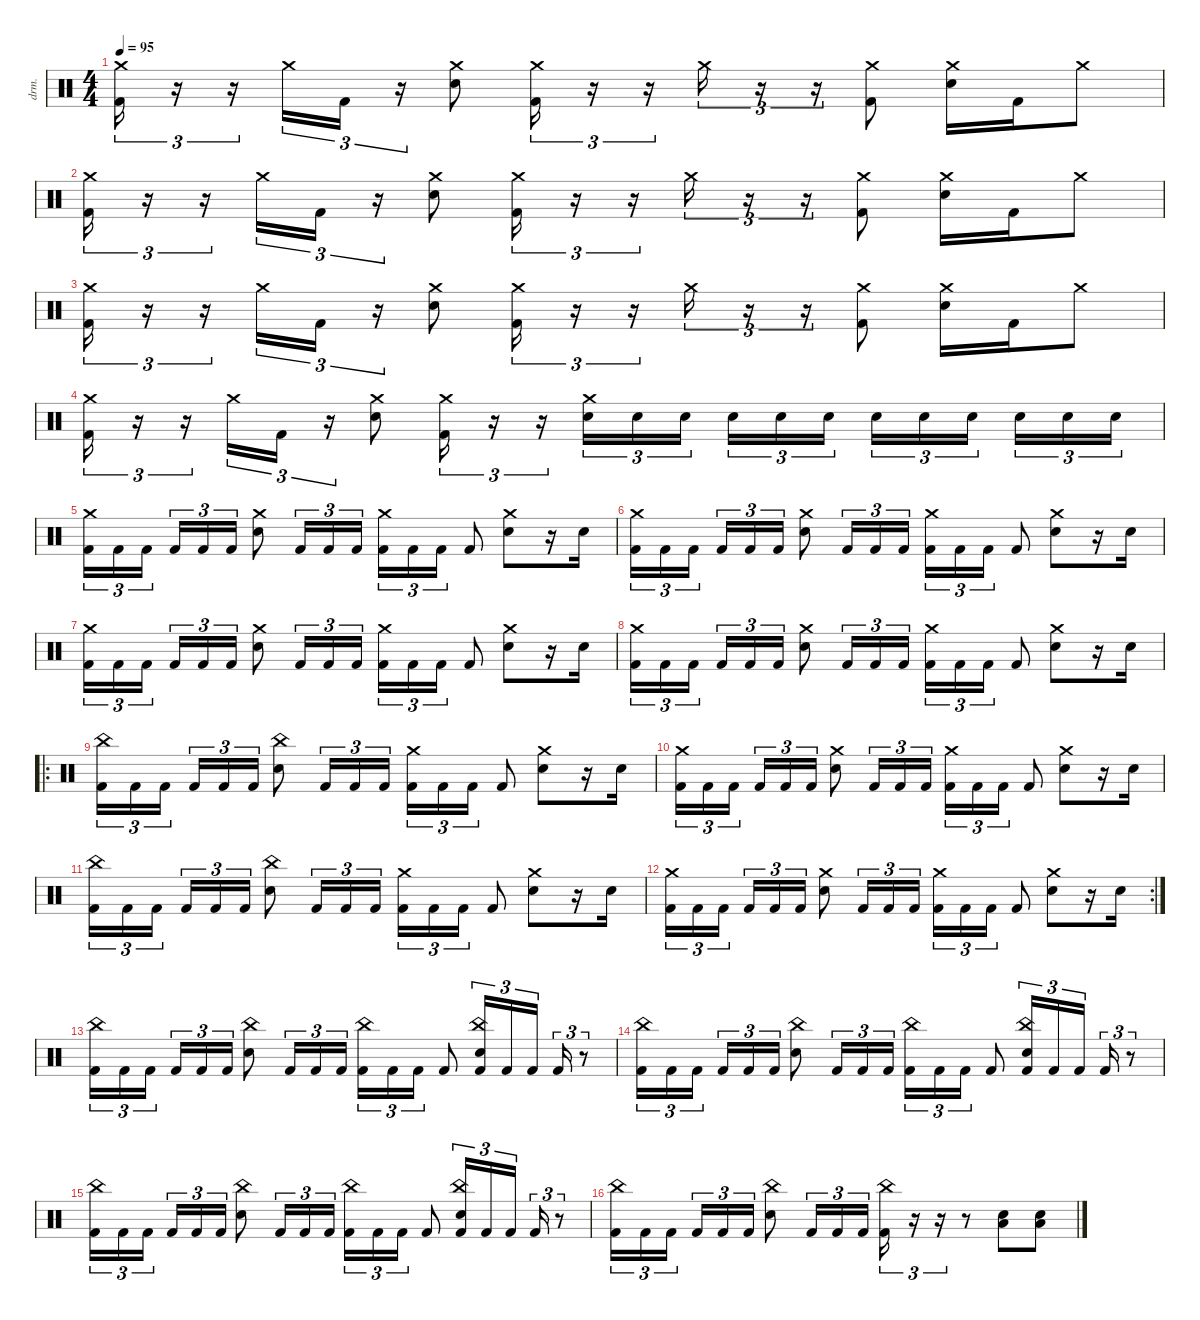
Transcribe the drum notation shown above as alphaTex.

\defaultSystemsLayout 4
\hideDynamics
\bracketExtendMode nobrackets
\otherSystemsTrackNameOrientation horizontal
\track ("FATTY!" "drm.") {instrument percussion}
\staff {score}
\articulation defaults
\ts (4 4)
\beaming (8 2 2 2 2)
\tempo 95
\clef neutral
\ks c
("Crash medium (hit)" "Kick (hit) 2").16{tu (3 2) dy f beam Down} r.16{tu (3 2) beam Down} r.16{tu (3 2) beam Down} "Crash medium (hit)".16{tu (3 2) beam Down} "Kick (hit) 2".16{tu (3 2) beam Down} r.16{tu (3 2) beam Down} ("Crash medium (hit)" "Snare (hit) 2").8{beam Down} ("Crash medium (hit)" "Kick (hit) 2").16{tu (3 2) beam Down} r.16{tu (3 2) beam Down} r.16{tu (3 2) beam Down} "Crash medium (hit)".16{tu (3 2) beam Down} r.16{tu (3 2) beam Down} r.16{tu (3 2) beam Down} ("Crash medium (hit)" "Kick (hit) 2").8{beam Down} ("Crash medium (hit)" "Snare (hit) 2").16{beam Down} "Kick (hit) 2".16{beam Down} "Crash medium (hit)".8{beam Down} |
("Crash medium (hit)" "Kick (hit) 2").16{tu (3 2) beam Down} r.16{tu (3 2) beam Down} r.16{tu (3 2) beam Down} "Crash medium (hit)".16{tu (3 2) beam Down} "Kick (hit) 2".16{tu (3 2) beam Down} r.16{tu (3 2) beam Down} ("Crash medium (hit)" "Snare (hit) 2").8{beam Down} ("Crash medium (hit)" "Kick (hit) 2").16{tu (3 2) beam Down} r.16{tu (3 2) beam Down} r.16{tu (3 2) beam Down} "Crash medium (hit)".16{tu (3 2) beam Down} r.16{tu (3 2) beam Down} r.16{tu (3 2) beam Down} ("Crash medium (hit)" "Kick (hit) 2").8{beam Down} ("Crash medium (hit)" "Snare (hit) 2").16{beam Down} "Kick (hit) 2".16{beam Down} "Crash medium (hit)".8{beam Down} |
("Crash medium (hit)" "Kick (hit) 2").16{tu (3 2) beam Down} r.16{tu (3 2) beam Down} r.16{tu (3 2) beam Down} "Crash medium (hit)".16{tu (3 2) beam Down} "Kick (hit) 2".16{tu (3 2) beam Down} r.16{tu (3 2) beam Down} ("Crash medium (hit)" "Snare (hit) 2").8{beam Down} ("Crash medium (hit)" "Kick (hit) 2").16{tu (3 2) beam Down} r.16{tu (3 2) beam Down} r.16{tu (3 2) beam Down} "Crash medium (hit)".16{tu (3 2) beam Down} r.16{tu (3 2) beam Down} r.16{tu (3 2) beam Down} ("Crash medium (hit)" "Kick (hit) 2").8{beam Down} ("Crash medium (hit)" "Snare (hit) 2").16{beam Down} "Kick (hit) 2".16{beam Down} "Crash medium (hit)".8{beam Down} |
("Crash medium (hit)" "Kick (hit) 2").16{tu (3 2) beam Down} r.16{tu (3 2) beam Down} r.16{tu (3 2) beam Down} "Crash medium (hit)".16{tu (3 2) beam Down} "Kick (hit) 2".16{tu (3 2) beam Down} r.16{tu (3 2) beam Down} ("Crash medium (hit)" "Snare (hit) 2").8{beam Down} ("Crash medium (hit)" "Kick (hit) 2").16{tu (3 2) beam Down} r.16{tu (3 2) beam Down} r.16{tu (3 2) beam Down} ("Crash medium (hit)" "Snare (hit) 2").16{tu (3 2) beam Down} "Snare (hit) 2".16{tu (3 2) beam Down} "Snare (hit) 2".16{tu (3 2) beam Down} "Snare (hit) 2".16{tu (3 2) beam Down} "Snare (hit) 2".16{tu (3 2) beam Down} "Snare (hit) 2".16{tu (3 2) beam Down} "Snare (hit) 2".16{tu (3 2) beam Down} "Snare (hit) 2".16{tu (3 2) beam Down} "Snare (hit) 2".16{tu (3 2) beam Down} "Snare (hit) 2".16{tu (3 2) beam Down} "Snare (hit) 2".16{tu (3 2) beam Down} "Snare (hit) 2".16{tu (3 2) beam Down} |
("Crash medium (hit)" "Kick (hit) 2").16{tu (3 2) beam Down} "Kick (hit) 2".16{tu (3 2) beam Down} "Kick (hit) 2".16{tu (3 2) beam Down} "Kick (hit) 2".16{tu (3 2) beam Up} "Kick (hit) 2".16{tu (3 2) beam Up} "Kick (hit) 2".16{tu (3 2) beam Up} ("Crash medium (hit)" "Snare (hit) 2").8{beam Down} "Kick (hit) 2".16{tu (3 2) beam Up} "Kick (hit) 2".16{tu (3 2) beam Up} "Kick (hit) 2".16{tu (3 2) beam Up} ("Crash medium (hit)" "Kick (hit) 2").16{tu (3 2) beam Down} "Kick (hit) 2".16{tu (3 2) beam Down} "Kick (hit) 2".16{tu (3 2) beam Down} "Kick (hit) 2".8{beam Up} ("Crash medium (hit)" "Snare (hit) 2").8{beam Down} r.16{beam Down} "Snare (hit) 2".16{beam Down} |
("Crash medium (hit)" "Kick (hit) 2").16{tu (3 2) beam Down} "Kick (hit) 2".16{tu (3 2) beam Down} "Kick (hit) 2".16{tu (3 2) beam Down} "Kick (hit) 2".16{tu (3 2) beam Up} "Kick (hit) 2".16{tu (3 2) beam Up} "Kick (hit) 2".16{tu (3 2) beam Up} ("Crash medium (hit)" "Snare (hit) 2").8{beam Down} "Kick (hit) 2".16{tu (3 2) beam Up} "Kick (hit) 2".16{tu (3 2) beam Up} "Kick (hit) 2".16{tu (3 2) beam Up} ("Crash medium (hit)" "Kick (hit) 2").16{tu (3 2) beam Down} "Kick (hit) 2".16{tu (3 2) beam Down} "Kick (hit) 2".16{tu (3 2) beam Down} "Kick (hit) 2".8{beam Up} ("Crash medium (hit)" "Snare (hit) 2").8{beam Down} r.16{beam Down} "Snare (hit) 2".16{beam Down} |
("Crash medium (hit)" "Kick (hit) 2").16{tu (3 2) beam Down} "Kick (hit) 2".16{tu (3 2) beam Down} "Kick (hit) 2".16{tu (3 2) beam Down} "Kick (hit) 2".16{tu (3 2) beam Up} "Kick (hit) 2".16{tu (3 2) beam Up} "Kick (hit) 2".16{tu (3 2) beam Up} ("Crash medium (hit)" "Snare (hit) 2").8{beam Down} "Kick (hit) 2".16{tu (3 2) beam Up} "Kick (hit) 2".16{tu (3 2) beam Up} "Kick (hit) 2".16{tu (3 2) beam Up} ("Crash medium (hit)" "Kick (hit) 2").16{tu (3 2) beam Down} "Kick (hit) 2".16{tu (3 2) beam Down} "Kick (hit) 2".16{tu (3 2) beam Down} "Kick (hit) 2".8{beam Up} ("Crash medium (hit)" "Snare (hit) 2").8{beam Down} r.16{beam Down} "Snare (hit) 2".16{beam Down} |
("Crash medium (hit)" "Kick (hit) 2").16{tu (3 2) beam Down} "Kick (hit) 2".16{tu (3 2) beam Down} "Kick (hit) 2".16{tu (3 2) beam Down} "Kick (hit) 2".16{tu (3 2) beam Up} "Kick (hit) 2".16{tu (3 2) beam Up} "Kick (hit) 2".16{tu (3 2) beam Up} ("Crash medium (hit)" "Snare (hit) 2").8{beam Down} "Kick (hit) 2".16{tu (3 2) beam Up} "Kick (hit) 2".16{tu (3 2) beam Up} "Kick (hit) 2".16{tu (3 2) beam Up} ("Crash medium (hit)" "Kick (hit) 2").16{tu (3 2) beam Down} "Kick (hit) 2".16{tu (3 2) beam Down} "Kick (hit) 2".16{tu (3 2) beam Down} "Kick (hit) 2".8{beam Up} ("Crash medium (hit)" "Snare (hit) 2").8{beam Down} r.16{beam Down} "Snare (hit) 2".16{beam Down} |
\ro
("China (hit)" "Kick (hit) 2").16{tu (3 2) beam Down} "Kick (hit) 2".16{tu (3 2) beam Down} "Kick (hit) 2".16{tu (3 2) beam Down} "Kick (hit) 2".16{tu (3 2) beam Up} "Kick (hit) 2".16{tu (3 2) beam Up} "Kick (hit) 2".16{tu (3 2) beam Up} ("China (hit)" "Snare (hit) 2").8{beam Down} "Kick (hit) 2".16{tu (3 2) beam Up} "Kick (hit) 2".16{tu (3 2) beam Up} "Kick (hit) 2".16{tu (3 2) beam Up} ("Crash medium (hit)" "Kick (hit) 2").16{tu (3 2) beam Down} "Kick (hit) 2".16{tu (3 2) beam Down} "Kick (hit) 2".16{tu (3 2) beam Down} "Kick (hit) 2".8{beam Up} ("Crash medium (hit)" "Snare (hit) 2").8{beam Down} r.16{beam Down} "Snare (hit) 2".16{beam Down} |
("Crash medium (hit)" "Kick (hit) 2").16{tu (3 2) beam Down} "Kick (hit) 2".16{tu (3 2) beam Down} "Kick (hit) 2".16{tu (3 2) beam Down} "Kick (hit) 2".16{tu (3 2) beam Up} "Kick (hit) 2".16{tu (3 2) beam Up} "Kick (hit) 2".16{tu (3 2) beam Up} ("Crash medium (hit)" "Snare (hit) 2").8{beam Down} "Kick (hit) 2".16{tu (3 2) beam Up} "Kick (hit) 2".16{tu (3 2) beam Up} "Kick (hit) 2".16{tu (3 2) beam Up} ("Crash medium (hit)" "Kick (hit) 2").16{tu (3 2) beam Down} "Kick (hit) 2".16{tu (3 2) beam Down} "Kick (hit) 2".16{tu (3 2) beam Down} "Kick (hit) 2".8{beam Up} ("Crash medium (hit)" "Snare (hit) 2").8{beam Down} r.16{beam Down} "Snare (hit) 2".16{beam Down} |
("China (hit)" "Kick (hit) 2").16{tu (3 2) beam Down} "Kick (hit) 2".16{tu (3 2) beam Down} "Kick (hit) 2".16{tu (3 2) beam Down} "Kick (hit) 2".16{tu (3 2) beam Up} "Kick (hit) 2".16{tu (3 2) beam Up} "Kick (hit) 2".16{tu (3 2) beam Up} ("China (hit)" "Snare (hit) 2").8{beam Down} "Kick (hit) 2".16{tu (3 2) beam Up} "Kick (hit) 2".16{tu (3 2) beam Up} "Kick (hit) 2".16{tu (3 2) beam Up} ("Crash medium (hit)" "Kick (hit) 2").16{tu (3 2) beam Down} "Kick (hit) 2".16{tu (3 2) beam Down} "Kick (hit) 2".16{tu (3 2) beam Down} "Kick (hit) 2".8{beam Up} ("Crash medium (hit)" "Snare (hit) 2").8{beam Down} r.16{beam Down} "Snare (hit) 2".16{beam Down} |
\rc 2
("Crash medium (hit)" "Kick (hit) 2").16{tu (3 2) beam Down} "Kick (hit) 2".16{tu (3 2) beam Down} "Kick (hit) 2".16{tu (3 2) beam Down} "Kick (hit) 2".16{tu (3 2) beam Up} "Kick (hit) 2".16{tu (3 2) beam Up} "Kick (hit) 2".16{tu (3 2) beam Up} ("Crash medium (hit)" "Snare (hit) 2").8{beam Down} "Kick (hit) 2".16{tu (3 2) beam Up} "Kick (hit) 2".16{tu (3 2) beam Up} "Kick (hit) 2".16{tu (3 2) beam Up} ("Crash medium (hit)" "Kick (hit) 2").16{tu (3 2) beam Down} "Kick (hit) 2".16{tu (3 2) beam Down} "Kick (hit) 2".16{tu (3 2) beam Down} "Kick (hit) 2".8{beam Up} ("Crash medium (hit)" "Snare (hit) 2").8{beam Down} r.16{beam Down} "Snare (hit) 2".16{beam Down} |
("China (hit)" "Kick (hit) 2").16{tu (3 2) beam Down} "Kick (hit) 2".16{tu (3 2) beam Down} "Kick (hit) 2".16{tu (3 2) beam Down} "Kick (hit) 2".16{tu (3 2) beam Up} "Kick (hit) 2".16{tu (3 2) beam Up} "Kick (hit) 2".16{tu (3 2) beam Up} ("China (hit)" "Snare (hit) 2").8{beam Down} "Kick (hit) 2".16{tu (3 2) beam Up} "Kick (hit) 2".16{tu (3 2) beam Up} "Kick (hit) 2".16{tu (3 2) beam Up} ("China (hit)" "Kick (hit) 2").16{tu (3 2) beam Down} "Kick (hit) 2".16{tu (3 2) beam Down} "Kick (hit) 2".16{tu (3 2) beam Down} "Kick (hit) 2".8{beam Up} ("China (hit)" "Snare (hit) 2" "Kick (hit) 2").16{tu (3 2) beam Up} "Kick (hit) 2".16{tu (3 2) beam Up} "Kick (hit) 2".16{tu (3 2) beam Up} "Kick (hit) 2".16{tu (3 2) beam Up} r.8{tu (3 2) beam Up} |
("China (hit)" "Kick (hit) 2").16{tu (3 2) beam Down} "Kick (hit) 2".16{tu (3 2) beam Down} "Kick (hit) 2".16{tu (3 2) beam Down} "Kick (hit) 2".16{tu (3 2) beam Up} "Kick (hit) 2".16{tu (3 2) beam Up} "Kick (hit) 2".16{tu (3 2) beam Up} ("China (hit)" "Snare (hit) 2").8{beam Down} "Kick (hit) 2".16{tu (3 2) beam Up} "Kick (hit) 2".16{tu (3 2) beam Up} "Kick (hit) 2".16{tu (3 2) beam Up} ("China (hit)" "Kick (hit) 2").16{tu (3 2) beam Down} "Kick (hit) 2".16{tu (3 2) beam Down} "Kick (hit) 2".16{tu (3 2) beam Down} "Kick (hit) 2".8{beam Up} ("China (hit)" "Snare (hit) 2" "Kick (hit) 2").16{tu (3 2) beam Up} "Kick (hit) 2".16{tu (3 2) beam Up} "Kick (hit) 2".16{tu (3 2) beam Up} "Kick (hit) 2".16{tu (3 2) beam Up} r.8{tu (3 2) beam Up} |
("China (hit)" "Kick (hit) 2").16{tu (3 2) beam Down} "Kick (hit) 2".16{tu (3 2) beam Down} "Kick (hit) 2".16{tu (3 2) beam Down} "Kick (hit) 2".16{tu (3 2) beam Up} "Kick (hit) 2".16{tu (3 2) beam Up} "Kick (hit) 2".16{tu (3 2) beam Up} ("China (hit)" "Snare (hit) 2").8{beam Down} "Kick (hit) 2".16{tu (3 2) beam Up} "Kick (hit) 2".16{tu (3 2) beam Up} "Kick (hit) 2".16{tu (3 2) beam Up} ("China (hit)" "Kick (hit) 2").16{tu (3 2) beam Down} "Kick (hit) 2".16{tu (3 2) beam Down} "Kick (hit) 2".16{tu (3 2) beam Down} "Kick (hit) 2".8{beam Up} ("China (hit)" "Snare (hit) 2" "Kick (hit) 2").16{tu (3 2) beam Up} "Kick (hit) 2".16{tu (3 2) beam Up} "Kick (hit) 2".16{tu (3 2) beam Up} "Kick (hit) 2".16{tu (3 2) beam Up} r.8{tu (3 2) beam Up} |
("China (hit)" "Kick (hit) 2").16{tu (3 2) beam Down} "Kick (hit) 2".16{tu (3 2) beam Down} "Kick (hit) 2".16{tu (3 2) beam Down} "Kick (hit) 2".16{tu (3 2) beam Up} "Kick (hit) 2".16{tu (3 2) beam Up} "Kick (hit) 2".16{tu (3 2) beam Up} ("China (hit)" "Snare (hit) 2").8{beam Down} "Kick (hit) 2".16{tu (3 2) beam Up} "Kick (hit) 2".16{tu (3 2) beam Up} "Kick (hit) 2".16{tu (3 2) beam Up} ("China (hit)" "Kick (hit) 2").16{tu (3 2) beam Down} r.16{tu (3 2) beam Down} r.16{tu (3 2) beam Down} r.8{beam Down} ("Low Tom (hit)" "Snare (hit) 2").8{beam Down} ("Low Tom (hit)" "Snare (hit) 2").8{beam Down}
